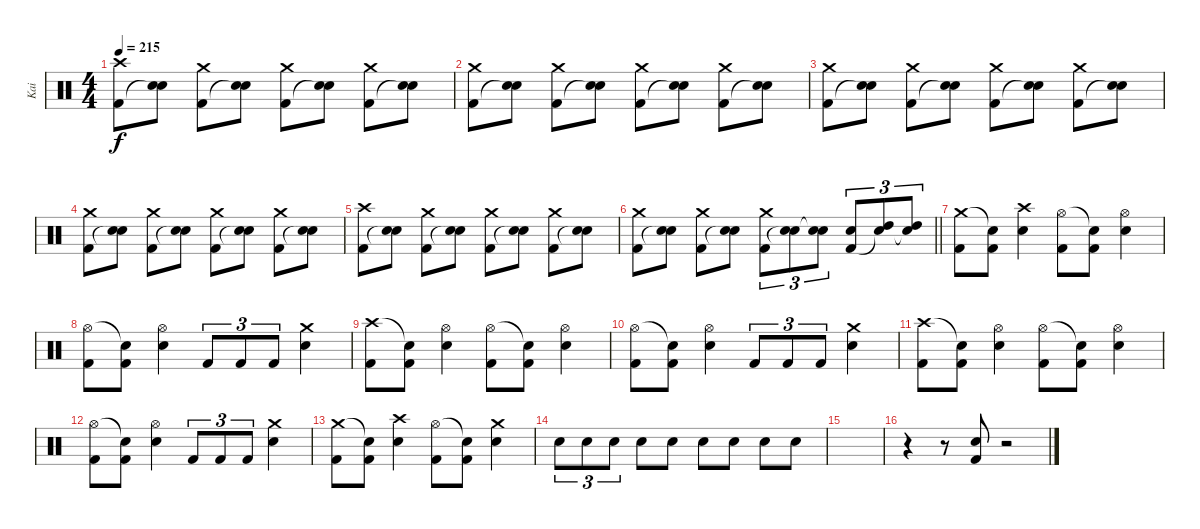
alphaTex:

\track ("Kai" "Kai") {instrument percussion}
\staff {score}
\articulation defaults
\ts (4 4)
\tempo 215
\clef neutral
\ks c
("Crash high (hit)" "Kick (hit) 2").8{dy f} ("Snare (hit) 2" "Snare (hit)"{t}).8 ("Crash medium (hit)" "Kick (hit) 2").8 ("Snare (hit) 2" "Snare (hit)"{t}).8 ("Crash medium (hit)" "Kick (hit) 2").8 ("Snare (hit) 2" "Snare (hit)"{t}).8 ("Crash medium (hit)" "Kick (hit) 2").8 ("Snare (hit) 2" "Snare (hit)"{t}).8 |
("Crash medium (hit)" "Kick (hit) 2").8 ("Snare (hit) 2" "Snare (hit)"{t}).8 ("Crash medium (hit)" "Kick (hit) 2").8 ("Snare (hit) 2" "Snare (hit)"{t}).8 ("Crash medium (hit)" "Kick (hit) 2").8 ("Snare (hit) 2" "Snare (hit)"{t}).8 ("Crash medium (hit)" "Kick (hit) 2").8 ("Snare (hit) 2" "Snare (hit)"{t}).8 |
("Crash medium (hit)" "Kick (hit) 2").8 ("Snare (hit) 2" "Snare (hit)"{t}).8 ("Crash medium (hit)" "Kick (hit) 2").8 ("Snare (hit) 2" "Snare (hit)"{t}).8 ("Crash medium (hit)" "Kick (hit) 2").8 ("Snare (hit) 2" "Snare (hit)"{t}).8 ("Crash medium (hit)" "Kick (hit) 2").8 ("Snare (hit) 2" "Snare (hit)"{t}).8 |
("Crash medium (hit)" "Kick (hit) 2").8 ("Snare (hit) 2" "Snare (hit)"{t}).8 ("Crash medium (hit)" "Kick (hit) 2").8 ("Snare (hit) 2" "Snare (hit)"{t}).8 ("Crash medium (hit)" "Kick (hit) 2").8 ("Snare (hit) 2" "Snare (hit)"{t}).8 ("Crash medium (hit)" "Kick (hit) 2").8 ("Snare (hit) 2" "Snare (hit)"{t}).8 |
("Crash high (hit)" "Kick (hit) 2").8 ("Snare (hit) 2" "Snare (hit)"{t}).8 ("Crash medium (hit)" "Kick (hit) 2").8 ("Snare (hit) 2" "Snare (hit)"{t}).8 ("Crash medium (hit)" "Kick (hit) 2").8 ("Snare (hit) 2" "Snare (hit)"{t}).8 ("Crash medium (hit)" "Kick (hit) 2").8 ("Snare (hit) 2" "Snare (hit)"{t}).8 |
\barLineRight lightlight
("Crash medium (hit)" "Kick (hit) 2").8 ("Snare (hit) 2" "Snare (hit)"{t}).8 ("Crash medium (hit)" "Kick (hit) 2").8 ("Snare (hit) 2" "Snare (hit)"{t}).8 ("Crash medium (hit)" "Kick (hit) 2").8{tu (3 2)} ("Snare (hit) 2" "Snare (hit)"{t}).8{tu (3 2)} ("Snare (hit) 2" "Snare (hit)"{t}).8{tu (3 2)} ("Snare (hit) 2" "Kick (hit) 2").8{tu (3 2)} ("High Tom (hit)" "Snare (hit)"{t}).8{tu (3 2)} ("High Tom (hit)" "Snare (hit)"{t}).8{tu (3 2)} |
("Crash medium (hit)" "Kick (hit) 2").8 ("Snare (hit)"{t} "Kick (hit) 2").8 ("Crash high (hit)" "Snare (hit) 2").4 ("Hi-Hat (open)" "Kick (hit) 2").8 ("Snare (hit)"{t} "Kick (hit) 2").8 ("Hi-Hat (open)" "Snare (hit) 2").4 |
("Hi-Hat (open)" "Kick (hit) 2").8 ("Snare (hit)"{t} "Kick (hit) 2").8 ("Hi-Hat (open)" "Snare (hit) 2").4 "Kick (hit) 2".8{tu (3 2)} "Kick (hit) 2".8{tu (3 2)} "Kick (hit) 2".8{tu (3 2)} ("Crash medium (hit)" "Snare (hit) 2").4 |
("Crash high (hit)" "Kick (hit) 2").8 ("Snare (hit)"{t} "Kick (hit) 2").8 ("Hi-Hat (open)" "Snare (hit) 2").4 ("Hi-Hat (open)" "Kick (hit) 2").8 ("Snare (hit)"{t} "Kick (hit) 2").8 ("Hi-Hat (open)" "Snare (hit) 2").4 |
("Hi-Hat (open)" "Kick (hit) 2").8 ("Snare (hit)"{t} "Kick (hit) 2").8 ("Hi-Hat (open)" "Snare (hit) 2").4 "Kick (hit) 2".8{tu (3 2)} "Kick (hit) 2".8{tu (3 2)} "Kick (hit) 2".8{tu (3 2)} ("Crash medium (hit)" "Snare (hit) 2").4 |
("Crash high (hit)" "Kick (hit) 2").8 ("Snare (hit)"{t} "Kick (hit) 2").8 ("Hi-Hat (open)" "Snare (hit) 2").4 ("Hi-Hat (open)" "Kick (hit) 2").8 ("Snare (hit)"{t} "Kick (hit) 2").8 ("Hi-Hat (open)" "Snare (hit) 2").4 |
("Hi-Hat (open)" "Kick (hit) 2").8 ("Snare (hit)"{t} "Kick (hit) 2").8 ("Hi-Hat (open)" "Snare (hit) 2").4 "Kick (hit) 2".8{tu (3 2)} "Kick (hit) 2".8{tu (3 2)} "Kick (hit) 2".8{tu (3 2)} ("Crash medium (hit)" "Snare (hit) 2").4 |
("Crash medium (hit)" "Kick (hit) 2").8 ("Snare (hit)"{t} "Kick (hit) 2").8 ("Crash high (hit)" "Snare (hit) 2").4 ("Hi-Hat (open)" "Kick (hit) 2").8 ("Snare (hit)"{t} "Kick (hit) 2").8 ("Crash medium (hit)" "Snare (hit) 2").4 |
"Snare (hit) 2".8{tu (3 2)} "Snare (hit) 2".8{tu (3 2)} "Snare (hit) 2".8{tu (3 2)} "Snare (hit) 2".8 "Snare (hit) 2".8 "Snare (hit) 2".8 "Snare (hit) 2".8 "Snare (hit) 2".8 "Snare (hit) 2".8 |
|
r.4 r.8 ("Snare (hit) 2" "Kick (hit) 2").8 r.2
